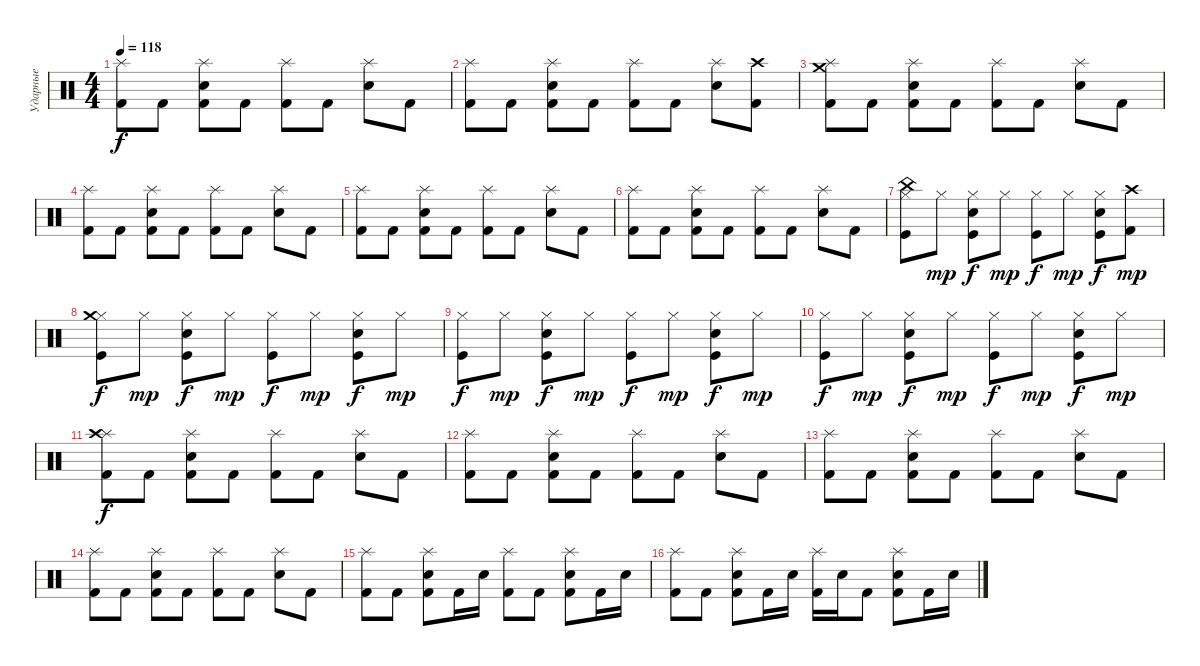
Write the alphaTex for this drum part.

\track ("Ударные" "Ударные") {instrument percussion}
\staff {score}
\articulation defaults
\ts (4 4)
\tempo 118
\clef neutral
\ks c
("Splash (hit)" "Kick (hit) 2").8{dy f} "Kick (hit) 2".8 ("Splash (hit)" "Kick (hit) 2" "Electric Snare (hit)").8 "Kick (hit) 2".8 ("Splash (hit)" "Kick (hit) 2").8 "Kick (hit) 2".8 ("Splash (hit)" "Electric Snare (hit)").8 "Kick (hit) 2".8 |
("Splash (hit)" "Kick (hit) 2").8 "Kick (hit) 2".8 ("Splash (hit)" "Kick (hit) 2" "Electric Snare (hit)").8 "Kick (hit) 2".8 ("Splash (hit)" "Kick (hit) 2").8 "Kick (hit) 2".8 ("Splash (hit)" "Electric Snare (hit)").8 ("Crash high (hit)" "Kick (hit) 2").8 |
("Splash (hit)" "Kick (hit) 2" "Crash medium (hit)").8 "Kick (hit) 2".8 ("Splash (hit)" "Kick (hit) 2" "Electric Snare (hit)").8 "Kick (hit) 2".8 ("Splash (hit)" "Kick (hit) 2").8 "Kick (hit) 2".8 ("Splash (hit)" "Electric Snare (hit)").8 "Kick (hit) 2".8 |
("Splash (hit)" "Kick (hit) 2").8 "Kick (hit) 2".8 ("Splash (hit)" "Kick (hit) 2" "Electric Snare (hit)").8 "Kick (hit) 2".8 ("Splash (hit)" "Kick (hit) 2").8 "Kick (hit) 2".8 ("Splash (hit)" "Electric Snare (hit)").8 "Kick (hit) 2".8 |
("Splash (hit)" "Kick (hit) 2").8 "Kick (hit) 2".8 ("Splash (hit)" "Kick (hit) 2" "Electric Snare (hit)").8 "Kick (hit) 2".8 ("Splash (hit)" "Kick (hit) 2").8 "Kick (hit) 2".8 ("Splash (hit)" "Electric Snare (hit)").8 "Kick (hit) 2".8 |
("Splash (hit)" "Kick (hit) 2").8 "Kick (hit) 2".8 ("Splash (hit)" "Kick (hit) 2" "Electric Snare (hit)").8 "Kick (hit) 2".8 ("Splash (hit)" "Kick (hit) 2").8 "Kick (hit) 2".8 ("Splash (hit)" "Electric Snare (hit)").8 "Kick (hit) 2".8 |
("Hi-Hat (closed)" "Kick (hit)" "China (hit)").8 "Hi-Hat (closed)".8{dy mp} ("Hi-Hat (closed)" "Kick (hit)" "Electric Snare (hit)").8{dy f} "Hi-Hat (closed)".8{dy mp} ("Hi-Hat (closed)" "Kick (hit)").8{dy f} "Hi-Hat (closed)".8{dy mp} ("Hi-Hat (closed)" "Kick (hit)" "Electric Snare (hit)").8{dy f} ("Kick (hit) 2" "Crash high (hit)").8{dy mp} |
("Hi-Hat (closed)" "Kick (hit)" "Crash medium (hit)").8{dy f} "Hi-Hat (closed)".8{dy mp} ("Hi-Hat (closed)" "Kick (hit)" "Electric Snare (hit)").8{dy f} "Hi-Hat (closed)".8{dy mp} ("Hi-Hat (closed)" "Kick (hit)").8{dy f} "Hi-Hat (closed)".8{dy mp} ("Hi-Hat (closed)" "Kick (hit)" "Electric Snare (hit)").8{dy f} "Hi-Hat (closed)".8{dy mp} |
("Hi-Hat (closed)" "Kick (hit)").8{dy f} "Hi-Hat (closed)".8{dy mp} ("Hi-Hat (closed)" "Kick (hit)" "Electric Snare (hit)").8{dy f} "Hi-Hat (closed)".8{dy mp} ("Hi-Hat (closed)" "Kick (hit)").8{dy f} "Hi-Hat (closed)".8{dy mp} ("Hi-Hat (closed)" "Kick (hit)" "Electric Snare (hit)").8{dy f} "Hi-Hat (closed)".8{dy mp} |
("Hi-Hat (closed)" "Kick (hit)").8{dy f} "Hi-Hat (closed)".8{dy mp} ("Hi-Hat (closed)" "Kick (hit)" "Electric Snare (hit)").8{dy f} "Hi-Hat (closed)".8{dy mp} ("Hi-Hat (closed)" "Kick (hit)").8{dy f} "Hi-Hat (closed)".8{dy mp} ("Hi-Hat (closed)" "Kick (hit)" "Electric Snare (hit)").8{dy f} "Hi-Hat (closed)".8{dy mp} |
("Splash (hit)" "Kick (hit) 2" "Crash high (hit)").8{dy f} "Kick (hit) 2".8 ("Splash (hit)" "Kick (hit) 2" "Electric Snare (hit)").8 "Kick (hit) 2".8 ("Splash (hit)" "Kick (hit) 2").8 "Kick (hit) 2".8 ("Splash (hit)" "Electric Snare (hit)").8 "Kick (hit) 2".8 |
("Splash (hit)" "Kick (hit) 2").8 "Kick (hit) 2".8 ("Splash (hit)" "Kick (hit) 2" "Electric Snare (hit)").8 "Kick (hit) 2".8 ("Splash (hit)" "Kick (hit) 2").8 "Kick (hit) 2".8 ("Splash (hit)" "Electric Snare (hit)").8 "Kick (hit) 2".8 |
("Splash (hit)" "Kick (hit) 2").8 "Kick (hit) 2".8 ("Splash (hit)" "Kick (hit) 2" "Electric Snare (hit)").8 "Kick (hit) 2".8 ("Splash (hit)" "Kick (hit) 2").8 "Kick (hit) 2".8 ("Splash (hit)" "Electric Snare (hit)").8 "Kick (hit) 2".8 |
("Splash (hit)" "Kick (hit) 2").8 "Kick (hit) 2".8 ("Splash (hit)" "Kick (hit) 2" "Electric Snare (hit)").8 "Kick (hit) 2".8 ("Splash (hit)" "Kick (hit) 2").8 "Kick (hit) 2".8 ("Splash (hit)" "Electric Snare (hit)").8 "Kick (hit) 2".8 |
("Splash (hit)" "Kick (hit) 2").8 "Kick (hit) 2".8 ("Splash (hit)" "Kick (hit) 2" "Electric Snare (hit)").8 "Kick (hit) 2".16 "Electric Snare (hit)".16 ("Splash (hit)" "Kick (hit) 2").8 "Kick (hit) 2".8 ("Splash (hit)" "Kick (hit) 2" "Electric Snare (hit)").8 "Kick (hit) 2".16 "Electric Snare (hit)".16 |
("Splash (hit)" "Kick (hit) 2").8 "Kick (hit) 2".8 ("Splash (hit)" "Kick (hit) 2" "Electric Snare (hit)").8 "Kick (hit) 2".16 "Electric Snare (hit)".16 ("Splash (hit)" "Kick (hit) 2").16 "Electric Snare (hit)".16 "Kick (hit) 2".8 ("Splash (hit)" "Kick (hit) 2" "Electric Snare (hit)").8 "Kick (hit) 2".16 "Electric Snare (hit)".16
